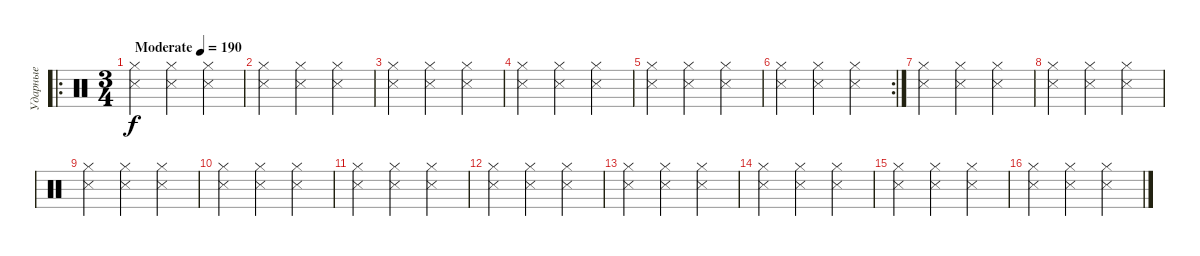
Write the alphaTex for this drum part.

\track ("Ударные" "Ударные") {instrument percussion}
\staff {score}
\articulation defaults
\ro
\ts (3 4)
\tempo (190 "Moderate")
\clef neutral
\ks c
("Hi-Hat (closed)" "Snare (side stick) 3").4{dy f} ("Hi-Hat (closed)" "Snare (side stick) 3").4 ("Hi-Hat (closed)" "Snare (side stick) 3").4 |
("Hi-Hat (closed)" "Snare (side stick) 3").4 ("Hi-Hat (closed)" "Snare (side stick) 3").4 ("Hi-Hat (closed)" "Snare (side stick) 3").4 |
("Hi-Hat (closed)" "Snare (side stick) 3").4 ("Hi-Hat (closed)" "Snare (side stick) 3").4 ("Hi-Hat (closed)" "Snare (side stick) 3").4 |
("Hi-Hat (closed)" "Snare (side stick) 3").4 ("Hi-Hat (closed)" "Snare (side stick) 3").4 ("Hi-Hat (closed)" "Snare (side stick) 3").4 |
("Hi-Hat (closed)" "Snare (side stick) 3").4 ("Hi-Hat (closed)" "Snare (side stick) 3").4 ("Hi-Hat (closed)" "Snare (side stick) 3").4 |
\rc 2
("Hi-Hat (closed)" "Snare (side stick) 3").4 ("Hi-Hat (closed)" "Snare (side stick) 3").4 ("Hi-Hat (closed)" "Snare (side stick) 3").4 |
("Hi-Hat (closed)" "Snare (side stick) 3").4 ("Hi-Hat (closed)" "Snare (side stick) 3").4 ("Hi-Hat (closed)" "Snare (side stick) 3").4 |
("Hi-Hat (closed)" "Snare (side stick) 3").4 ("Hi-Hat (closed)" "Snare (side stick) 3").4 ("Hi-Hat (closed)" "Snare (side stick) 3").4 |
("Hi-Hat (closed)" "Snare (side stick) 3").4 ("Hi-Hat (closed)" "Snare (side stick) 3").4 ("Hi-Hat (closed)" "Snare (side stick) 3").4 |
("Hi-Hat (closed)" "Snare (side stick) 3").4 ("Hi-Hat (closed)" "Snare (side stick) 3").4 ("Hi-Hat (closed)" "Snare (side stick) 3").4 |
("Hi-Hat (closed)" "Snare (side stick) 3").4 ("Hi-Hat (closed)" "Snare (side stick) 3").4 ("Hi-Hat (closed)" "Snare (side stick) 3").4 |
("Hi-Hat (closed)" "Snare (side stick) 3").4 ("Hi-Hat (closed)" "Snare (side stick) 3").4 ("Hi-Hat (closed)" "Snare (side stick) 3").4 |
("Hi-Hat (closed)" "Snare (side stick) 3").4 ("Hi-Hat (closed)" "Snare (side stick) 3").4 ("Hi-Hat (closed)" "Snare (side stick) 3").4 |
("Hi-Hat (closed)" "Snare (side stick) 3").4 ("Hi-Hat (closed)" "Snare (side stick) 3").4 ("Hi-Hat (closed)" "Snare (side stick) 3").4 |
("Hi-Hat (closed)" "Snare (side stick) 3").4 ("Hi-Hat (closed)" "Snare (side stick) 3").4 ("Hi-Hat (closed)" "Snare (side stick) 3").4 |
("Hi-Hat (closed)" "Snare (side stick) 3").4 ("Hi-Hat (closed)" "Snare (side stick) 3").4 ("Hi-Hat (closed)" "Snare (side stick) 3").4
